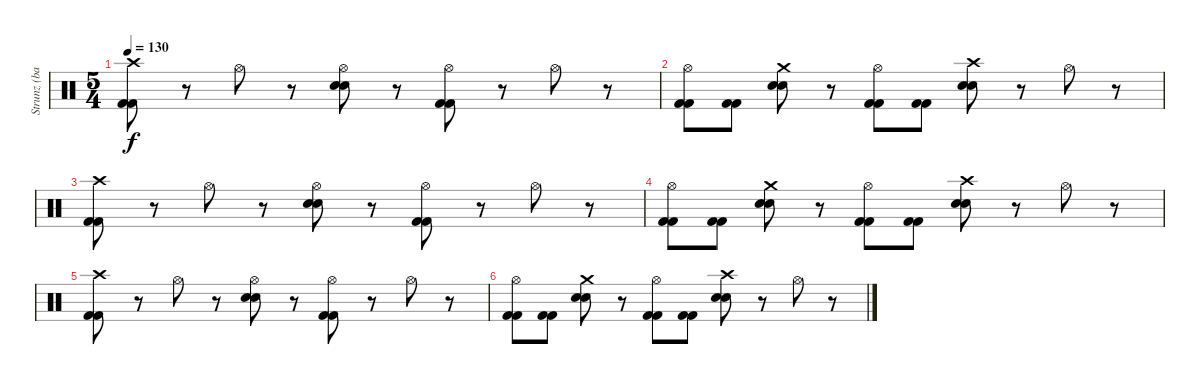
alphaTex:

\track ("Strunz (bateria)" "Strunz (ba") {instrument percussion}
\staff {score}
\articulation defaults
\ts (5 4)
\tempo 130
\clef neutral
\ks c
("Crash high (hit)" "Kick (hit) 2" "Kick (hit) 2").8{dy f} r.8 "Hi-Hat (open)".8 r.8 ("Hi-Hat (open)" "Snare (hit) 2" "Snare (hit) 2").8 r.8 ("Hi-Hat (open)" "Kick (hit) 2" "Kick (hit) 2").8 r.8 "Hi-Hat (open)".8 r.8 |
("Hi-Hat (open)" "Kick (hit) 2" "Kick (hit) 2").8{volume 5} ("Kick (hit) 2" "Kick (hit) 2").8 ("Crash medium (hit)" "Snare (hit) 2" "Snare (hit) 2").8 r.8 ("Hi-Hat (open)" "Kick (hit) 2" "Kick (hit) 2").8 ("Kick (hit) 2" "Kick (hit) 2").8 ("Crash high (hit)" "Snare (hit) 2" "Snare (hit) 2").8 r.8 "Hi-Hat (open)".8 r.8 |
("Crash high (hit)" "Kick (hit) 2" "Kick (hit) 2").8 r.8 "Hi-Hat (open)".8 r.8 ("Hi-Hat (open)" "Snare (hit) 2" "Snare (hit) 2").8 r.8 ("Hi-Hat (open)" "Kick (hit) 2" "Kick (hit) 2").8 r.8 "Hi-Hat (open)".8 r.8 |
("Hi-Hat (open)" "Kick (hit) 2" "Kick (hit) 2").8 ("Kick (hit) 2" "Kick (hit) 2").8 ("Crash medium (hit)" "Snare (hit) 2" "Snare (hit) 2").8 r.8 ("Hi-Hat (open)" "Kick (hit) 2" "Kick (hit) 2").8 ("Kick (hit) 2" "Kick (hit) 2").8 ("Crash high (hit)" "Snare (hit) 2" "Snare (hit) 2").8 r.8 "Hi-Hat (open)".8 r.8 |
("Crash high (hit)" "Kick (hit) 2" "Kick (hit) 2").8{volume 0} r.8 "Hi-Hat (open)".8 r.8 ("Hi-Hat (open)" "Snare (hit) 2" "Snare (hit) 2").8 r.8 ("Hi-Hat (open)" "Kick (hit) 2" "Kick (hit) 2").8 r.8 "Hi-Hat (open)".8 r.8 |
("Hi-Hat (open)" "Kick (hit) 2" "Kick (hit) 2").8 ("Kick (hit) 2" "Kick (hit) 2").8 ("Crash medium (hit)" "Snare (hit) 2" "Snare (hit) 2").8 r.8 ("Hi-Hat (open)" "Kick (hit) 2" "Kick (hit) 2").8 ("Kick (hit) 2" "Kick (hit) 2").8 ("Crash high (hit)" "Snare (hit) 2" "Snare (hit) 2").8 r.8 "Hi-Hat (open)".8 r.8
